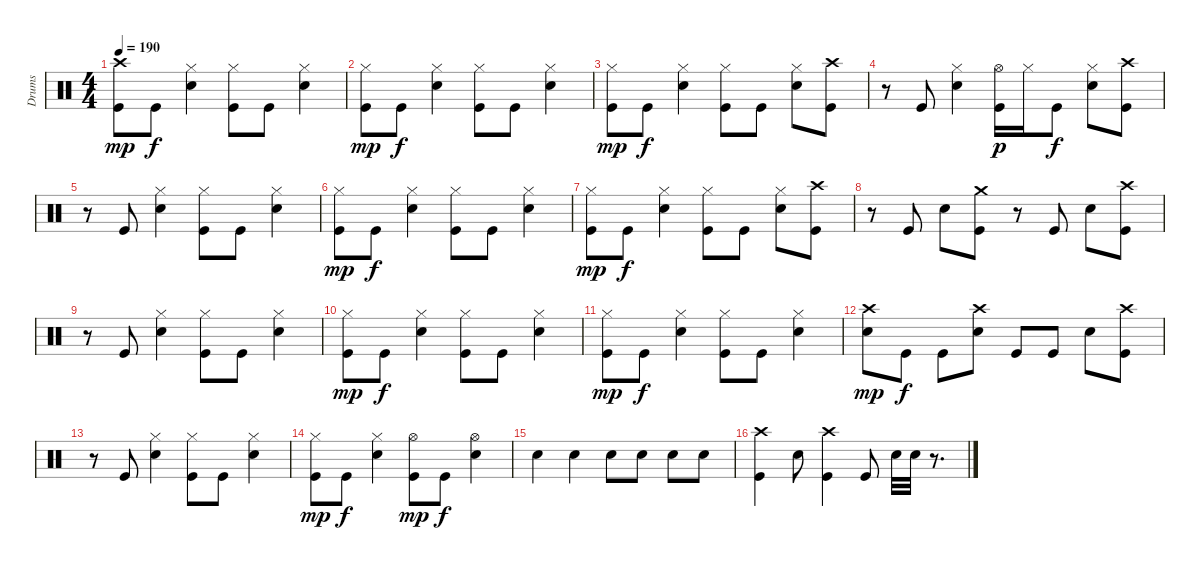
\track ("Drums" "Drums") {instrument percussion}
\staff {score}
\articulation defaults
\ts (4 4)
\tempo 190
\clef neutral
\ks c
("Crash high (hit)" "Kick (hit)").8{dy mp} "Kick (hit)".8{dy f} ("Hi-Hat (closed)" "Snare (hit) 2").4 ("Hi-Hat (closed)" "Kick (hit)").8 "Kick (hit)".8 ("Hi-Hat (closed)" "Snare (hit) 2").4 |
("Hi-Hat (closed)" "Kick (hit)").8{dy mp} "Kick (hit)".8{dy f} ("Hi-Hat (closed)" "Snare (hit) 2").4 ("Hi-Hat (closed)" "Kick (hit)").8 "Kick (hit)".8 ("Hi-Hat (closed)" "Snare (hit) 2").4 |
("Hi-Hat (closed)" "Kick (hit)").8{dy mp} "Kick (hit)".8{dy f} ("Hi-Hat (closed)" "Snare (hit) 2").4 ("Hi-Hat (closed)" "Kick (hit)").8 "Kick (hit)".8 ("Hi-Hat (closed)" "Snare (hit) 2").8 ("Crash high (hit)" "Kick (hit)").8 |
r.8 "Kick (hit)".8 ("Hi-Hat (closed)" "Snare (hit) 2").4 ("Hi-Hat (open)" "Kick (hit)").16{dy p} "Hi-Hat (closed)".16 "Kick (hit)".8{dy f} ("Hi-Hat (closed)" "Snare (hit) 2").8 ("Crash high (hit)" "Kick (hit)").8 |
r.8 "Kick (hit)".8 ("Hi-Hat (closed)" "Snare (hit) 2").4 ("Hi-Hat (closed)" "Kick (hit)").8 "Kick (hit)".8 ("Hi-Hat (closed)" "Snare (hit) 2").4 |
("Hi-Hat (closed)" "Kick (hit)").8{dy mp} "Kick (hit)".8{dy f} ("Hi-Hat (closed)" "Snare (hit) 2").4 ("Hi-Hat (closed)" "Kick (hit)").8 "Kick (hit)".8 ("Hi-Hat (closed)" "Snare (hit) 2").4 |
("Hi-Hat (closed)" "Kick (hit)").8{dy mp} "Kick (hit)".8{dy f} ("Hi-Hat (closed)" "Snare (hit) 2").4 ("Hi-Hat (closed)" "Kick (hit)").8 "Kick (hit)".8 ("Hi-Hat (closed)" "Snare (hit) 2").8 ("Crash high (hit)" "Kick (hit)").8 |
r.8 "Kick (hit)".8 "Snare (hit) 2".8 ("Crash medium (hit)" "Kick (hit)").8 r.8 "Kick (hit)".8 "Snare (hit) 2".8 ("Crash high (hit)" "Kick (hit)").8 |
r.8 "Kick (hit)".8 ("Hi-Hat (closed)" "Snare (hit) 2").4 ("Hi-Hat (closed)" "Kick (hit)").8 "Kick (hit)".8 ("Hi-Hat (closed)" "Snare (hit) 2").4 |
("Hi-Hat (closed)" "Kick (hit)").8{dy mp} "Kick (hit)".8{dy f} ("Hi-Hat (closed)" "Snare (hit) 2").4 ("Hi-Hat (closed)" "Kick (hit)").8 "Kick (hit)".8 ("Hi-Hat (closed)" "Snare (hit) 2").4 |
("Hi-Hat (closed)" "Kick (hit)").8{dy mp} "Kick (hit)".8{dy f} ("Hi-Hat (closed)" "Snare (hit) 2").4 ("Hi-Hat (closed)" "Kick (hit)").8 "Kick (hit)".8 ("Hi-Hat (closed)" "Snare (hit) 2").4 |
("Crash high (hit)" "Snare (hit) 2").8{dy mp} "Kick (hit)".8{dy f} "Kick (hit)".8 ("Crash high (hit)" "Snare (hit) 2").8 "Kick (hit)".8 "Kick (hit)".8 "Snare (hit) 2".8 ("Crash high (hit)" "Kick (hit)").8 |
r.8 "Kick (hit)".8 ("Hi-Hat (closed)" "Snare (hit) 2").4 ("Hi-Hat (closed)" "Kick (hit)").8 "Kick (hit)".8 ("Hi-Hat (closed)" "Snare (hit) 2").4 |
("Hi-Hat (closed)" "Kick (hit)").8{dy mp} "Kick (hit)".8{dy f} ("Hi-Hat (closed)" "Snare (hit) 2").4 ("Hi-Hat (open)" "Kick (hit)").8{dy mp} "Kick (hit)".8{dy f} ("Hi-Hat (open)" "Snare (hit) 2").4 |
"Snare (hit) 2".4 "Snare (hit) 2".4 "Snare (hit) 2".8 "Snare (hit) 2".8 "Snare (hit) 2".8 "Snare (hit) 2".8 |
("Crash high (hit)" "Kick (hit)").4 "Snare (hit) 2".8 ("Crash high (hit)" "Kick (hit)").4 "Kick (hit)".8 "Snare (hit) 2".32 "Snare (hit) 2".32 r.8{d}
